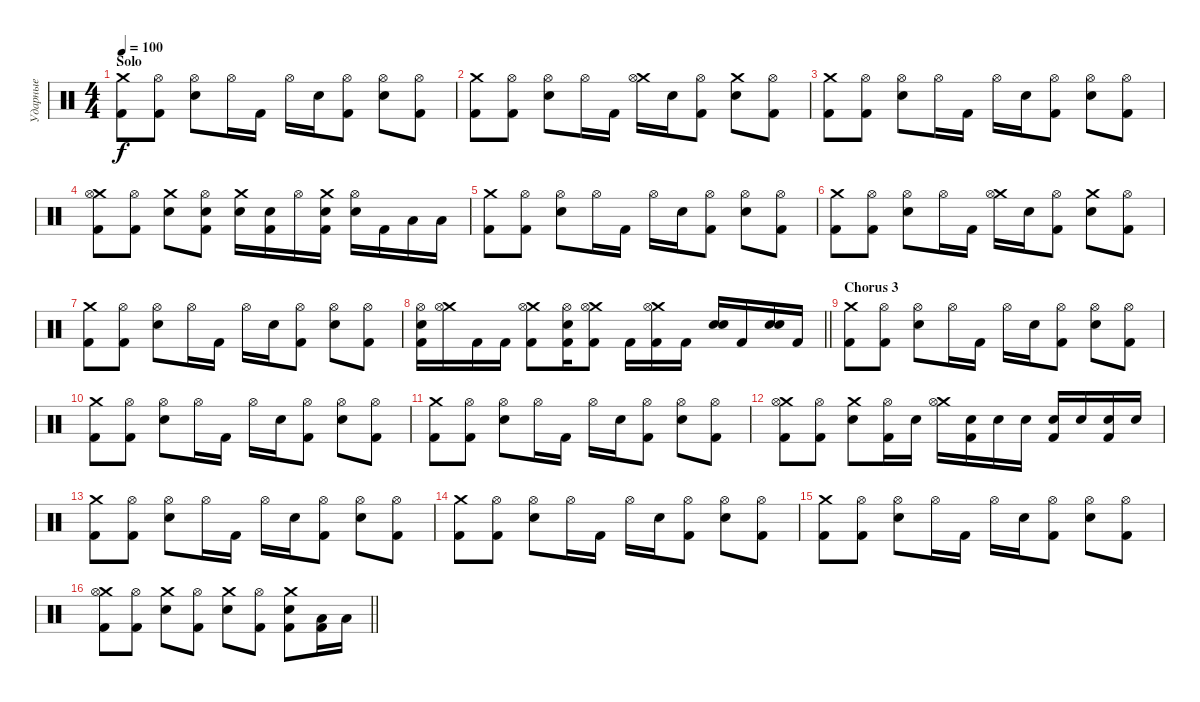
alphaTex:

\track ("Ударные" "Ударные") {instrument percussion}
\staff
\articulation defaults
\ts (4 4)
\section ("" "Solo")
\tempo 100
\clef neutral
\ks c
("Crash medium (hit)" "Kick (hit) 2").8{dy f} ("Hi-Hat (open)" "Kick (hit) 2").8 ("Hi-Hat (open)" "Electric Snare (hit)").8 "Hi-Hat (open)".16 "Kick (hit) 2".16 "Hi-Hat (open)".16 "Electric Snare (hit)".16 ("Hi-Hat (open)" "Kick (hit) 2").8 ("Hi-Hat (open)" "Electric Snare (hit)").8 ("Hi-Hat (open)" "Kick (hit) 2").8 |
("Crash medium (hit)" "Kick (hit) 2").8 ("Hi-Hat (open)" "Kick (hit) 2").8 ("Hi-Hat (open)" "Electric Snare (hit)").8 "Hi-Hat (open)".16 "Kick (hit) 2".16 ("Crash medium (hit)" "Hi-Hat (open)").16 "Electric Snare (hit)".16 ("Hi-Hat (open)" "Kick (hit) 2").8 ("Crash medium (hit)" "Electric Snare (hit)").8 ("Hi-Hat (open)" "Kick (hit) 2").8 |
("Crash medium (hit)" "Kick (hit) 2").8 ("Hi-Hat (open)" "Kick (hit) 2").8 ("Hi-Hat (open)" "Electric Snare (hit)").8 "Hi-Hat (open)".16 "Kick (hit) 2".16 "Hi-Hat (open)".16 "Electric Snare (hit)".16 ("Hi-Hat (open)" "Kick (hit) 2").8 ("Hi-Hat (open)" "Electric Snare (hit)").8 ("Hi-Hat (open)" "Kick (hit) 2").8 |
("Crash medium (hit)" "Hi-Hat (open)" "Kick (hit) 2").8 ("Hi-Hat (open)" "Kick (hit) 2").8 ("Crash medium (hit)" "Electric Snare (hit)").8 ("Hi-Hat (open)" "Electric Snare (hit)" "Kick (hit) 2").8 ("Crash medium (hit)" "Electric Snare (hit)").16 ("Electric Snare (hit)" "Kick (hit) 2").16 "Hi-Hat (open)".16 ("Crash medium (hit)" "Electric Snare (hit)" "Kick (hit) 2").16 ("Hi-Hat (open)" "Electric Snare (hit)").16 "Kick (hit) 2".16 "Low Tom (hit)".16 "Low Tom (hit)".16 |
("Crash medium (hit)" "Kick (hit) 2").8 ("Hi-Hat (open)" "Kick (hit) 2").8 ("Hi-Hat (open)" "Electric Snare (hit)").8 "Hi-Hat (open)".16 "Kick (hit) 2".16 "Hi-Hat (open)".16 "Electric Snare (hit)".16 ("Hi-Hat (open)" "Kick (hit) 2").8 ("Hi-Hat (open)" "Electric Snare (hit)").8 ("Hi-Hat (open)" "Kick (hit) 2").8 |
("Crash medium (hit)" "Kick (hit) 2").8 ("Hi-Hat (open)" "Kick (hit) 2").8 ("Hi-Hat (open)" "Electric Snare (hit)").8 "Hi-Hat (open)".16 "Kick (hit) 2".16 ("Crash medium (hit)" "Hi-Hat (open)").16 "Electric Snare (hit)".16 ("Hi-Hat (open)" "Kick (hit) 2").8 ("Crash medium (hit)" "Electric Snare (hit)").8 ("Hi-Hat (open)" "Kick (hit) 2").8 |
("Crash medium (hit)" "Kick (hit) 2").8 ("Hi-Hat (open)" "Kick (hit) 2").8 ("Hi-Hat (open)" "Electric Snare (hit)").8 "Hi-Hat (open)".16 "Kick (hit) 2".16 "Hi-Hat (open)".16 "Electric Snare (hit)".16 ("Hi-Hat (open)" "Kick (hit) 2").8 ("Hi-Hat (open)" "Electric Snare (hit)").8 ("Hi-Hat (open)" "Kick (hit) 2").8 |
\barLineRight lightlight
("Hi-Hat (open)" "Electric Snare (hit)" "Kick (hit) 2").16 ("Crash medium (hit)" "Hi-Hat (open)").16 "Kick (hit) 2".16 "Kick (hit) 2".16 ("Crash medium (hit)" "Hi-Hat (open)" "Kick (hit) 2").8 ("Hi-Hat (open)" "Electric Snare (hit)" "Kick (hit) 2").16 ("Crash medium (hit)" "Hi-Hat (open)" "Kick (hit) 2").8 "Kick (hit) 2".16 ("Crash medium (hit)" "Hi-Hat (open)" "Kick (hit) 2").16 "Kick (hit) 2".16 ("Electric Snare (hit)" "Electric Snare (hit)").16 "Kick (hit) 2".16 ("Electric Snare (hit)" "Electric Snare (hit)").16 "Kick (hit) 2".16 |
\section ("" "Chorus 3")
("Crash medium (hit)" "Kick (hit) 2").8 ("Hi-Hat (open)" "Kick (hit) 2").8 ("Hi-Hat (open)" "Electric Snare (hit)").8 "Hi-Hat (open)".16 "Kick (hit) 2".16 "Hi-Hat (open)".16 "Electric Snare (hit)".16 ("Hi-Hat (open)" "Kick (hit) 2").8 ("Hi-Hat (open)" "Electric Snare (hit)").8 ("Hi-Hat (open)" "Kick (hit) 2").8 |
("Crash medium (hit)" "Kick (hit) 2").8 ("Hi-Hat (open)" "Kick (hit) 2").8 ("Hi-Hat (open)" "Electric Snare (hit)").8 "Hi-Hat (open)".16 "Kick (hit) 2".16 "Hi-Hat (open)".16 "Electric Snare (hit)".16 ("Hi-Hat (open)" "Kick (hit) 2").8 ("Hi-Hat (open)" "Electric Snare (hit)").8 ("Hi-Hat (open)" "Kick (hit) 2").8 |
("Crash medium (hit)" "Kick (hit) 2").8 ("Hi-Hat (open)" "Kick (hit) 2").8 ("Hi-Hat (open)" "Electric Snare (hit)").8 "Hi-Hat (open)".16 "Kick (hit) 2".16 "Hi-Hat (open)".16 "Electric Snare (hit)".16 ("Hi-Hat (open)" "Kick (hit) 2").8 ("Hi-Hat (open)" "Electric Snare (hit)").8 ("Hi-Hat (open)" "Kick (hit) 2").8 |
("Crash medium (hit)" "Hi-Hat (open)" "Kick (hit) 2").8 ("Hi-Hat (open)" "Kick (hit) 2").8 ("Crash medium (hit)" "Electric Snare (hit)").8 ("Hi-Hat (open)" "Kick (hit) 2").16 "Electric Snare (hit)".16 ("Crash medium (hit)" "Hi-Hat (open)").16 ("Electric Snare (hit)" "Kick (hit) 2").16 "Electric Snare (hit)".16 "Electric Snare (hit)".16 ("Electric Snare (hit)" "Kick (hit) 2").16 "Electric Snare (hit)".16 ("Electric Snare (hit)" "Kick (hit) 2").16 "Electric Snare (hit)".16 |
("Crash medium (hit)" "Kick (hit) 2").8 ("Hi-Hat (open)" "Kick (hit) 2").8 ("Hi-Hat (open)" "Electric Snare (hit)").8 "Hi-Hat (open)".16 "Kick (hit) 2".16 "Hi-Hat (open)".16 "Electric Snare (hit)".16 ("Hi-Hat (open)" "Kick (hit) 2").8 ("Hi-Hat (open)" "Electric Snare (hit)").8 ("Hi-Hat (open)" "Kick (hit) 2").8 |
("Crash medium (hit)" "Kick (hit) 2").8 ("Hi-Hat (open)" "Kick (hit) 2").8 ("Hi-Hat (open)" "Electric Snare (hit)").8 "Hi-Hat (open)".16 "Kick (hit) 2".16 "Hi-Hat (open)".16 "Electric Snare (hit)".16 ("Hi-Hat (open)" "Kick (hit) 2").8 ("Hi-Hat (open)" "Electric Snare (hit)").8 ("Hi-Hat (open)" "Kick (hit) 2").8 |
("Crash medium (hit)" "Kick (hit) 2").8 ("Hi-Hat (open)" "Kick (hit) 2").8 ("Hi-Hat (open)" "Electric Snare (hit)").8 "Hi-Hat (open)".16 "Kick (hit) 2".16 "Hi-Hat (open)".16 "Electric Snare (hit)".16 ("Hi-Hat (open)" "Kick (hit) 2").8 ("Hi-Hat (open)" "Electric Snare (hit)").8 ("Hi-Hat (open)" "Kick (hit) 2").8 |
\barLineRight lightlight
("Crash medium (hit)" "Hi-Hat (open)" "Kick (hit) 2").8 ("Hi-Hat (open)" "Kick (hit) 2").8 ("Crash medium (hit)" "Electric Snare (hit)").8 ("Hi-Hat (open)" "Kick (hit) 2").8 ("Crash medium (hit)" "Electric Snare (hit)").8 ("Hi-Hat (open)" "Kick (hit) 2").8 ("Crash medium (hit)" "Electric Snare (hit)" "Kick (hit) 2").8 ("Low Tom (hit)" "Kick (hit) 2").16 "Low Tom (hit)".16
